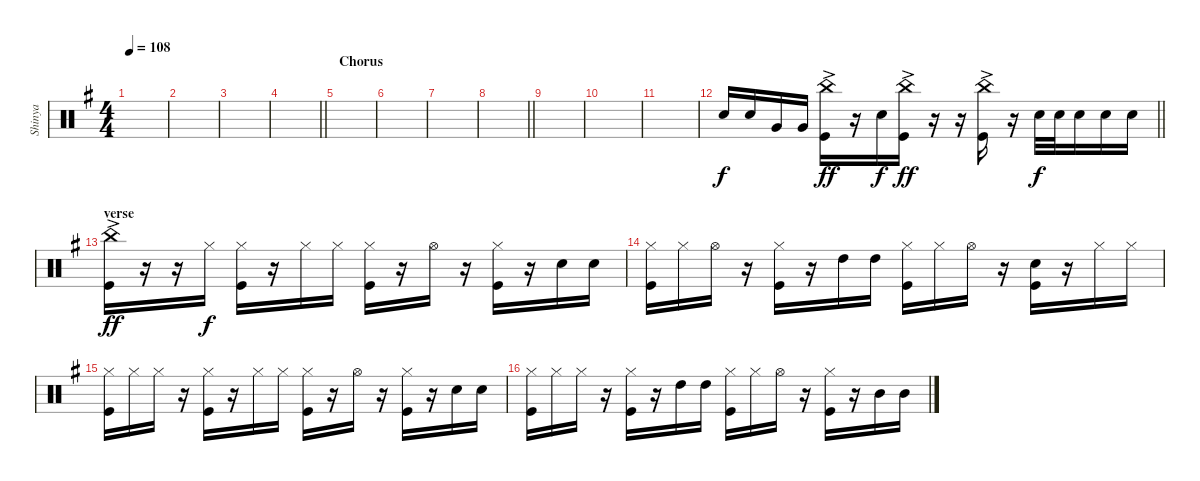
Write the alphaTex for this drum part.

\track ("Shinya" "Shinya") {instrument percussion}
\staff {score}
\articulation defaults
\ts (4 4)
\tempo 108
\clef neutral
\ks g
|
|
|
\barLineRight lightlight
|
\section ("" "Chorus")
|
|
|
\barLineRight lightlight
|
|
|
|
\barLineRight lightlight "Electric Snare (hit)".16{beam Up} "Electric Snare (hit)".16{beam Up} "Very Low Tom (hit)".16{beam Up} "Very Low Tom (hit)".16{beam Up}
("China (hit)"{ac} "Kick (hit)").16{dy ff} r.16 "Electric Snare (hit)".16{dy f} ("China (hit)"{ac} "Kick (hit)").16{dy ff} r.16 r.16 ("China (hit)"{ac} "Kick (hit)").16 r.16 "Electric Snare (hit)".32{dy f} "Electric Snare (hit)".32 "Electric Snare (hit)".16 "Electric Snare (hit)".16 "Electric Snare (hit)".16 |
\section ("" "verse")
("China (hit)"{ac} "Kick (hit)").16{dy ff} r.16 r.16 "Hi-Hat (closed)".16{dy f} ("Hi-Hat (closed)" "Kick (hit)").16 r.16 "Hi-Hat (closed)".16 "Hi-Hat (closed)".16 ("Hi-Hat (closed)" "Kick (hit)").16 r.16 "Hi-Hat (open)".16 r.16 ("Hi-Hat (closed)" "Kick (hit)").16 r.16 "Electric Snare (hit)".16 "Electric Snare (hit)".16 |
("Hi-Hat (closed)" "Kick (hit)").16 "Hi-Hat (closed)".16 "Hi-Hat (open)".16 r.16 ("Hi-Hat (closed)" "Kick (hit)").16 r.16 "High Tom (hit)".16 "High Tom (hit)".16 ("Hi-Hat (closed)" "Kick (hit)").16 "Hi-Hat (closed)".16 "Hi-Hat (open)".16 r.16 ("Electric Snare (hit)" "Kick (hit)").16 r.16 "Hi-Hat (closed)".16 "Hi-Hat (closed)".16 |
("Hi-Hat (closed)" "Kick (hit)").16 "Hi-Hat (closed)".16 "Hi-Hat (closed)".16 r.16 ("Hi-Hat (closed)" "Kick (hit)").16 r.16 "Hi-Hat (closed)".16 "Hi-Hat (closed)".16 ("Hi-Hat (closed)" "Kick (hit)").16 r.16 "Hi-Hat (open)".16 r.16 ("Hi-Hat (closed)" "Kick (hit)").16 r.16 "Electric Snare (hit)".16 "Electric Snare (hit)".16 |
("Hi-Hat (closed)" "Kick (hit)").16 "Hi-Hat (closed)".16 "Hi-Hat (closed)".16 r.16 ("Hi-Hat (closed)" "Kick (hit)").16 r.16 "High Tom (hit)".16 "High Tom (hit)".16 ("Hi-Hat (closed)" "Kick (hit)").16 "Hi-Hat (closed)".16 "Hi-Hat (open)".16 r.16 ("Hi-Hat (closed)" "Kick (hit)").16 r.16 "Mid Tom (hit)".16 "Mid Tom (hit)".16
